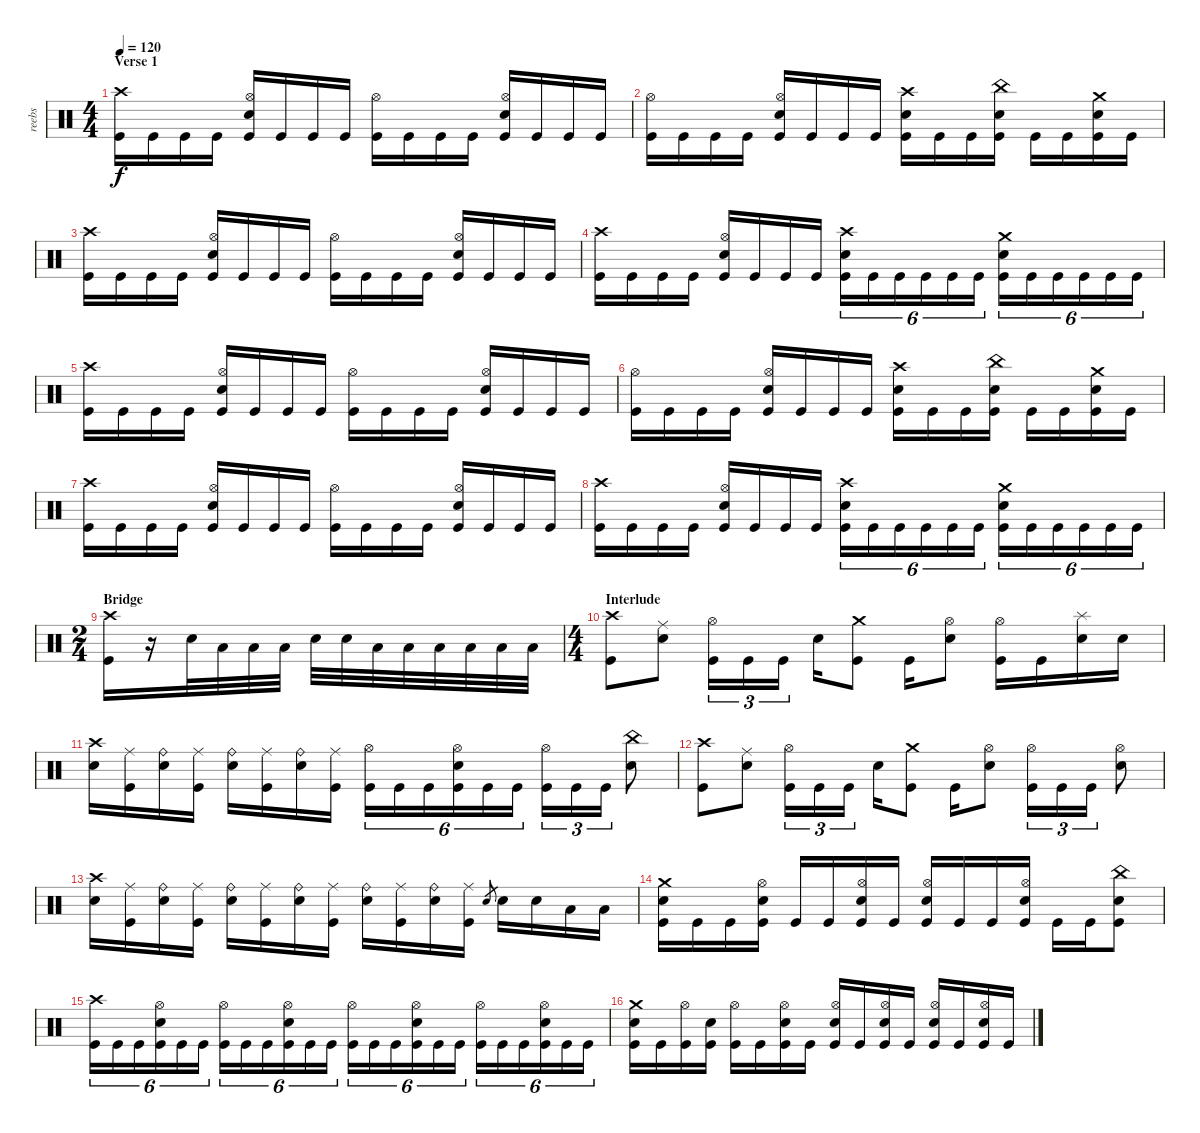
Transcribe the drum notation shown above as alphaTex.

\track ("reebs" "reebs") {instrument percussion}
\staff {score}
\articulation defaults
\ts (4 4)
\section ("" "Verse 1")
\tempo 120
\clef neutral
\ks c
("Crash high (hit)" "Kick (hit)").16{dy f} "Kick (hit)".16 "Kick (hit)".16 "Kick (hit)".16 ("Hi-Hat (open)" "Electric Snare (hit)" "Kick (hit)").16 "Kick (hit)".16 "Kick (hit)".16 "Kick (hit)".16 ("Hi-Hat (open)" "Kick (hit)").16 "Kick (hit)".16 "Kick (hit)".16 "Kick (hit)".16 ("Hi-Hat (open)" "Electric Snare (hit)" "Kick (hit)").16 "Kick (hit)".16 "Kick (hit)".16 "Kick (hit)".16 |
("Hi-Hat (open)" "Kick (hit)").16 "Kick (hit)".16 "Kick (hit)".16 "Kick (hit)".16 ("Hi-Hat (open)" "Electric Snare (hit)" "Kick (hit)").16 "Kick (hit)".16 "Kick (hit)".16 "Kick (hit)".16 ("Crash high (hit)" "Electric Snare (hit)" "Kick (hit)").16 "Kick (hit)".16 "Kick (hit)".16 ("China (hit)" "Electric Snare (hit)" "Kick (hit)").16 "Kick (hit)".16 "Kick (hit)".16 ("Crash medium (hit)" "Electric Snare (hit)" "Kick (hit)").16 "Kick (hit)".16 |
("Crash high (hit)" "Kick (hit)").16 "Kick (hit)".16 "Kick (hit)".16 "Kick (hit)".16 ("Hi-Hat (open)" "Electric Snare (hit)" "Kick (hit)").16 "Kick (hit)".16 "Kick (hit)".16 "Kick (hit)".16 ("Hi-Hat (open)" "Kick (hit)").16 "Kick (hit)".16 "Kick (hit)".16 "Kick (hit)".16 ("Hi-Hat (open)" "Electric Snare (hit)" "Kick (hit)").16 "Kick (hit)".16 "Kick (hit)".16 "Kick (hit)".16 |
("Crash high (hit)" "Kick (hit)").16 "Kick (hit)".16 "Kick (hit)".16 "Kick (hit)".16 ("Hi-Hat (open)" "Electric Snare (hit)" "Kick (hit)").16 "Kick (hit)".16 "Kick (hit)".16 "Kick (hit)".16 ("Crash high (hit)" "Electric Snare (hit)" "Kick (hit)").16{tu (6 4)} "Kick (hit)".16{tu (6 4)} "Kick (hit)".16{tu (6 4)} "Kick (hit)".16{tu (6 4)} "Kick (hit)".16{tu (6 4)} "Kick (hit)".16{tu (6 4)} ("Crash medium (hit)" "Electric Snare (hit)" "Kick (hit)").16{tu (6 4)} "Kick (hit)".16{tu (6 4)} "Kick (hit)".16{tu (6 4)} "Kick (hit)".16{tu (6 4)} "Kick (hit)".16{tu (6 4)} "Kick (hit)".16{tu (6 4)} |
("Crash high (hit)" "Kick (hit)").16 "Kick (hit)".16 "Kick (hit)".16 "Kick (hit)".16 ("Hi-Hat (open)" "Electric Snare (hit)" "Kick (hit)").16 "Kick (hit)".16 "Kick (hit)".16 "Kick (hit)".16 ("Hi-Hat (open)" "Kick (hit)").16 "Kick (hit)".16 "Kick (hit)".16 "Kick (hit)".16 ("Hi-Hat (open)" "Electric Snare (hit)" "Kick (hit)").16 "Kick (hit)".16 "Kick (hit)".16 "Kick (hit)".16 |
("Hi-Hat (open)" "Kick (hit)").16 "Kick (hit)".16 "Kick (hit)".16 "Kick (hit)".16 ("Hi-Hat (open)" "Electric Snare (hit)" "Kick (hit)").16 "Kick (hit)".16 "Kick (hit)".16 "Kick (hit)".16 ("Crash high (hit)" "Electric Snare (hit)" "Kick (hit)").16 "Kick (hit)".16 "Kick (hit)".16 ("China (hit)" "Electric Snare (hit)" "Kick (hit)").16 "Kick (hit)".16 "Kick (hit)".16 ("Crash medium (hit)" "Electric Snare (hit)" "Kick (hit)").16 "Kick (hit)".16 |
("Crash high (hit)" "Kick (hit)").16 "Kick (hit)".16 "Kick (hit)".16 "Kick (hit)".16 ("Hi-Hat (open)" "Electric Snare (hit)" "Kick (hit)").16 "Kick (hit)".16 "Kick (hit)".16 "Kick (hit)".16 ("Hi-Hat (open)" "Kick (hit)").16 "Kick (hit)".16 "Kick (hit)".16 "Kick (hit)".16 ("Hi-Hat (open)" "Electric Snare (hit)" "Kick (hit)").16 "Kick (hit)".16 "Kick (hit)".16 "Kick (hit)".16 |
("Crash high (hit)" "Kick (hit)").16 "Kick (hit)".16 "Kick (hit)".16 "Kick (hit)".16 ("Hi-Hat (open)" "Electric Snare (hit)" "Kick (hit)").16 "Kick (hit)".16 "Kick (hit)".16 "Kick (hit)".16 ("Crash high (hit)" "Electric Snare (hit)" "Kick (hit)").16{tu (6 4)} "Kick (hit)".16{tu (6 4)} "Kick (hit)".16{tu (6 4)} "Kick (hit)".16{tu (6 4)} "Kick (hit)".16{tu (6 4)} "Kick (hit)".16{tu (6 4)} ("Crash medium (hit)" "Electric Snare (hit)" "Kick (hit)").16{tu (6 4)} "Kick (hit)".16{tu (6 4)} "Kick (hit)".16{tu (6 4)} "Kick (hit)".16{tu (6 4)} "Kick (hit)".16{tu (6 4)} "Kick (hit)".16{tu (6 4)} |
\ts (2 4)
\section ("" "Bridge")
("Crash high (hit)" "Kick (hit)").16{volume 0} r.16{volume 13} "Snare (hit) 2".32 "Low Tom (hit)".32 "Low Tom (hit)".32 "Low Floor Tom (hit)".32 "Snare (hit) 2".32 "Snare (hit) 2".32 "Low Tom (hit)".32 "Low Tom (hit)".32 "Low Floor Tom (hit)".32 "Low Floor Tom (hit)".32 "Low Tom (hit)".32 "Low Floor Tom (hit)".32 |
\ts (4 4)
\section ("" "Interlude")
("Crash high (hit)" "Kick (hit)").8 ("Ride (middle)" "Electric Snare (hit)").8 ("Hi-Hat (open)" "Kick (hit)").16{tu (3 2)} "Kick (hit)".16{tu (3 2)} "Kick (hit)".16{tu (3 2)} "Electric Snare (hit)".16 ("Crash medium (hit)" "Kick (hit)").8 "Kick (hit)".16 ("Hi-Hat (open)" "Electric Snare (hit)").8 ("Hi-Hat (open)" "Kick (hit)").16 "Kick (hit)".16 ("Splash (hit)" "Electric Snare (hit)").16 "Electric Snare (hit)".16 |
("Crash high (hit)" "Electric Snare (hit)").16 ("Ride (middle)" "Kick (hit)").16 ("Ride (bell)" "Electric Snare (hit)").16 ("Ride (middle)" "Kick (hit)").16 ("Ride (bell)" "Electric Snare (hit)").16 ("Ride (middle)" "Kick (hit)").16 ("Ride (bell)" "Electric Snare (hit)").16 ("Ride (middle)" "Kick (hit)").16 ("Hi-Hat (open)" "Kick (hit)").16{tu (6 4)} "Kick (hit)".16{tu (6 4)} "Kick (hit)".16{tu (6 4)} ("Hi-Hat (open)" "Electric Snare (hit)" "Kick (hit)").16{tu (6 4)} "Kick (hit)".16{tu (6 4)} "Kick (hit)".16{tu (6 4)} ("Hi-Hat (open)" "Kick (hit)").16{tu (3 2)} "Kick (hit)".16{tu (3 2)} "Kick (hit)".16{tu (3 2)} ("China (hit)" "Electric Snare (hit)").8 |
("Crash high (hit)" "Kick (hit)").8 ("Ride (middle)" "Electric Snare (hit)").8 ("Hi-Hat (open)" "Kick (hit)").16{tu (3 2)} "Kick (hit)".16{tu (3 2)} "Kick (hit)".16{tu (3 2)} "Electric Snare (hit)".16 ("Crash medium (hit)" "Kick (hit)").8 "Kick (hit)".16 ("Hi-Hat (open)" "Electric Snare (hit)").8 ("Hi-Hat (open)" "Kick (hit)").16{tu (3 2)} "Kick (hit)".16{tu (3 2)} "Kick (hit)".16{tu (3 2)} ("Hi-Hat (open)" "Electric Snare (hit)").8 |
("Crash high (hit)" "Electric Snare (hit)").16 ("Ride (middle)" "Kick (hit)").16 ("Ride (bell)" "Electric Snare (hit)").16 ("Ride (middle)" "Kick (hit)").16 ("Ride (bell)" "Electric Snare (hit)").16 ("Ride (middle)" "Kick (hit)").16 ("Ride (bell)" "Electric Snare (hit)").16 ("Ride (middle)" "Kick (hit)").16 ("Ride (bell)" "Electric Snare (hit)").16 ("Ride (middle)" "Kick (hit)").16 ("Ride (bell)" "Electric Snare (hit)").16 ("Ride (middle)" "Kick (hit)").16 "Electric Snare (hit)".8{gr} "Electric Snare (hit)".16 "Electric Snare (hit)".16 "Low Tom (hit)".16 "Low Floor Tom (hit)".16 |
("Crash medium (hit)" "Electric Snare (hit)" "Kick (hit)").16 "Kick (hit)".16 "Kick (hit)".16 ("Hi-Hat (open)" "Electric Snare (hit)" "Kick (hit)").16 "Kick (hit)".16 "Kick (hit)".16 ("Hi-Hat (open)" "Electric Snare (hit)" "Kick (hit)").16 "Kick (hit)".16 ("Hi-Hat (open)" "Electric Snare (hit)" "Kick (hit)").16 "Kick (hit)".16 "Kick (hit)".16 ("Hi-Hat (open)" "Electric Snare (hit)" "Kick (hit)").16 "Kick (hit)".16 "Kick (hit)".16 ("China (hit)" "Electric Snare (hit)" "Kick (hit)").8 |
("Crash high (hit)" "Kick (hit)").16{tu (6 4)} "Kick (hit)".16{tu (6 4)} "Kick (hit)".16{tu (6 4)} ("Hi-Hat (open)" "Electric Snare (hit)" "Kick (hit)").16{tu (6 4)} "Kick (hit)".16{tu (6 4)} "Kick (hit)".16{tu (6 4)} ("Hi-Hat (open)" "Kick (hit)").16{tu (6 4)} "Kick (hit)".16{tu (6 4)} "Kick (hit)".16{tu (6 4)} ("Hi-Hat (open)" "Electric Snare (hit)" "Kick (hit)").16{tu (6 4)} "Kick (hit)".16{tu (6 4)} "Kick (hit)".16{tu (6 4)} ("Hi-Hat (open)" "Kick (hit)").16{tu (6 4)} "Kick (hit)".16{tu (6 4)} "Kick (hit)".16{tu (6 4)} ("Hi-Hat (open)" "Electric Snare (hit)" "Kick (hit)").16{tu (6 4)} "Kick (hit)".16{tu (6 4)} "Kick (hit)".16{tu (6 4)} ("Hi-Hat (open)" "Kick (hit)").16{tu (6 4)} "Kick (hit)".16{tu (6 4)} "Kick (hit)".16{tu (6 4)} ("Hi-Hat (open)" "Electric Snare (hit)" "Kick (hit)").16{tu (6 4)} "Kick (hit)".16{tu (6 4)} "Kick (hit)".16{tu (6 4)} |
("Crash medium (hit)" "Electric Snare (hit)" "Kick (hit)").16 "Kick (hit)".16 ("Hi-Hat (open)" "Kick (hit)").16 ("Electric Snare (hit)" "Kick (hit)").16 ("Hi-Hat (open)" "Kick (hit)").16 "Kick (hit)".16 ("Hi-Hat (open)" "Electric Snare (hit)" "Kick (hit)").16 "Kick (hit)".16 ("Hi-Hat (open)" "Electric Snare (hit)" "Kick (hit)").16 "Kick (hit)".16 ("Hi-Hat (open)" "Electric Snare (hit)" "Kick (hit)").16 "Kick (hit)".16 ("Hi-Hat (open)" "Electric Snare (hit)" "Kick (hit)").16 "Kick (hit)".16 ("Hi-Hat (open)" "Electric Snare (hit)" "Kick (hit)").16 "Kick (hit)".16
